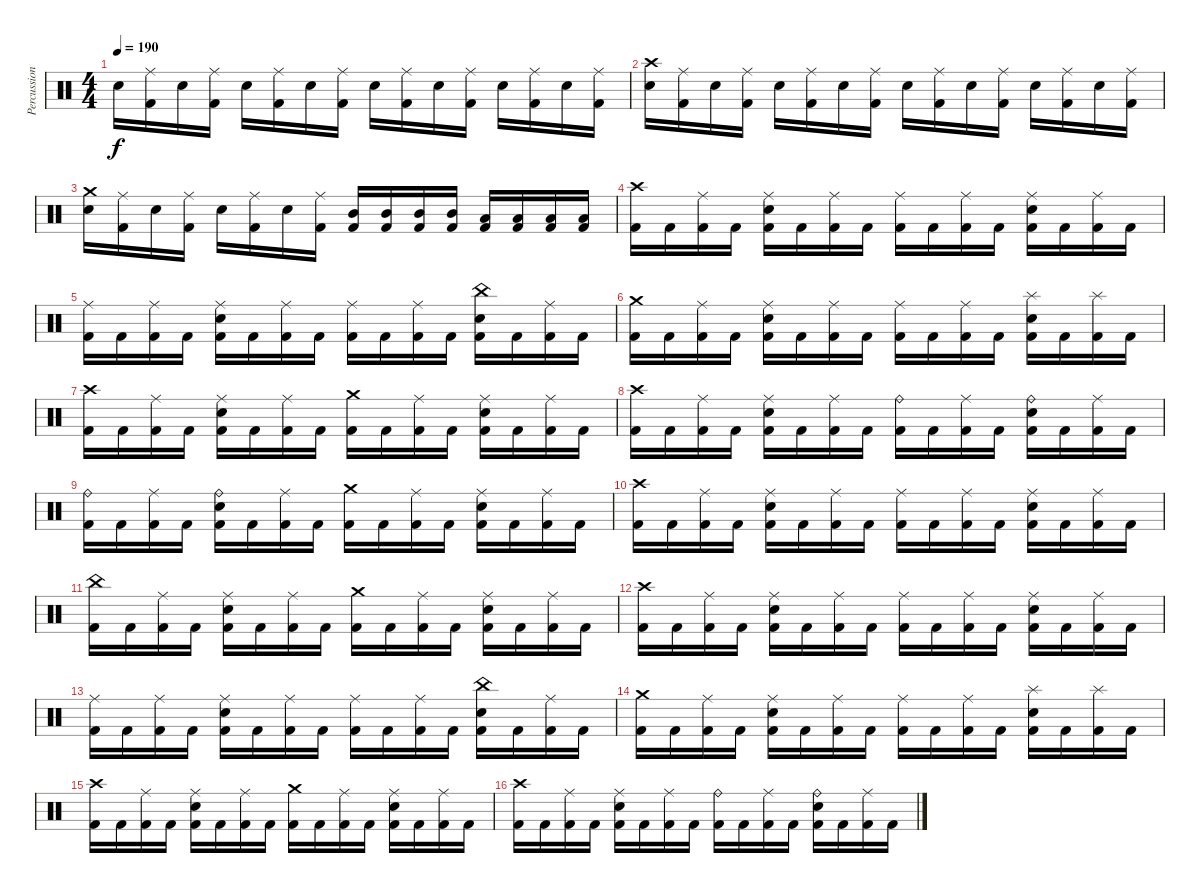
\track ("Percussion" "Percussion") {instrument percussion}
\staff {score}
\articulation defaults
\ts (4 4)
\tempo 190
\clef neutral
\ks c "Snare (hit) 2".16{dy f}
("Ride (middle)" "Kick (hit) 2").16 "Snare (hit) 2".16 ("Ride (middle)" "Kick (hit) 2").16 "Snare (hit) 2".16 ("Ride (middle)" "Kick (hit) 2").16 "Snare (hit) 2".16 ("Ride (middle)" "Kick (hit) 2").16 "Snare (hit) 2".16 ("Ride (middle)" "Kick (hit) 2").16 "Snare (hit) 2".16 ("Ride (middle)" "Kick (hit) 2").16 "Snare (hit) 2".16 ("Ride (middle)" "Kick (hit) 2").16 "Snare (hit) 2".16 ("Ride (middle)" "Kick (hit) 2").16 |
("Crash high (hit)" "Snare (hit) 2").16 ("Ride (middle)" "Kick (hit) 2").16 "Snare (hit) 2".16 ("Ride (middle)" "Kick (hit) 2").16 "Snare (hit) 2".16 ("Ride (middle)" "Kick (hit) 2").16 "Snare (hit) 2".16 ("Ride (middle)" "Kick (hit) 2").16 "Snare (hit) 2".16 ("Ride (middle)" "Kick (hit) 2").16 "Snare (hit) 2".16 ("Ride (middle)" "Kick (hit) 2").16 "Snare (hit) 2".16 ("Ride (middle)" "Kick (hit) 2").16 "Snare (hit) 2".16 ("Ride (middle)" "Kick (hit) 2").16 |
("Crash medium (hit)" "Snare (hit) 2").16 ("Ride (middle)" "Kick (hit) 2").16 "Snare (hit) 2".16 ("Ride (middle)" "Kick (hit) 2").16 "Snare (hit) 2".16 ("Ride (middle)" "Kick (hit) 2").16 "Snare (hit) 2".16 ("Ride (middle)" "Kick (hit) 2").16 ("Mid Tom (hit)" "Kick (hit) 2").16 ("Mid Tom (hit)" "Kick (hit) 2").16 ("Mid Tom (hit)" "Kick (hit) 2").16 ("Mid Tom (hit)" "Kick (hit) 2").16 ("Low Tom (hit)" "Kick (hit) 2").16 ("Low Tom (hit)" "Kick (hit) 2").16 ("Low Tom (hit)" "Kick (hit) 2").16 ("Low Tom (hit)" "Kick (hit) 2").16 |
("Crash high (hit)" "Kick (hit) 2").16 "Kick (hit) 2".16 ("Ride (middle)" "Kick (hit) 2").16 "Kick (hit) 2".16 ("Ride (middle)" "Snare (hit) 2" "Kick (hit) 2").16 "Kick (hit) 2".16 ("Ride (middle)" "Kick (hit) 2").16 "Kick (hit) 2".16 ("Ride (middle)" "Kick (hit) 2").16 "Kick (hit) 2".16 ("Ride (middle)" "Kick (hit) 2").16 "Kick (hit) 2".16 ("Ride (middle)" "Snare (hit) 2" "Kick (hit) 2").16 "Kick (hit) 2".16 ("Ride (middle)" "Kick (hit) 2").16 "Kick (hit) 2".16 |
("Ride (middle)" "Kick (hit) 2").16 "Kick (hit) 2".16 ("Ride (middle)" "Kick (hit) 2").16 "Kick (hit) 2".16 ("Ride (middle)" "Snare (hit) 2" "Kick (hit) 2").16 "Kick (hit) 2".16 ("Ride (middle)" "Kick (hit) 2").16 "Kick (hit) 2".16 ("Ride (middle)" "Kick (hit) 2").16 "Kick (hit) 2".16 ("Ride (middle)" "Kick (hit) 2").16 "Kick (hit) 2".16 ("China (hit)" "Snare (hit) 2" "Kick (hit) 2").16 "Kick (hit) 2".16 ("Ride (middle)" "Kick (hit) 2").16 "Kick (hit) 2".16 |
("Crash medium (hit)" "Kick (hit) 2").16 "Kick (hit) 2".16 ("Ride (middle)" "Kick (hit) 2").16 "Kick (hit) 2".16 ("Ride (middle)" "Snare (hit) 2" "Kick (hit) 2").16 "Kick (hit) 2".16 ("Ride (middle)" "Kick (hit) 2").16 "Kick (hit) 2".16 ("Ride (middle)" "Kick (hit) 2").16 "Kick (hit) 2".16 ("Ride (middle)" "Kick (hit) 2").16 "Kick (hit) 2".16 ("Splash (hit)" "Snare (hit) 2" "Kick (hit) 2").16 "Kick (hit) 2".16 ("Splash (hit)" "Kick (hit) 2").16 "Kick (hit) 2".16 |
("Crash high (hit)" "Kick (hit) 2").16 "Kick (hit) 2".16 ("Ride (middle)" "Kick (hit) 2").16 "Kick (hit) 2".16 ("Ride (middle)" "Snare (hit) 2" "Kick (hit) 2").16 "Kick (hit) 2".16 ("Ride (middle)" "Kick (hit) 2").16 "Kick (hit) 2".16 ("Crash medium (hit)" "Kick (hit) 2").16 "Kick (hit) 2".16 ("Ride (middle)" "Kick (hit) 2").16 "Kick (hit) 2".16 ("Ride (middle)" "Snare (hit) 2" "Kick (hit) 2").16 "Kick (hit) 2".16 ("Ride (middle)" "Kick (hit) 2").16 "Kick (hit) 2".16 |
("Crash high (hit)" "Kick (hit) 2").16 "Kick (hit) 2".16 ("Ride (middle)" "Kick (hit) 2").16 "Kick (hit) 2".16 ("Ride (middle)" "Snare (hit) 2" "Kick (hit) 2").16 "Kick (hit) 2".16 ("Ride (middle)" "Kick (hit) 2").16 "Kick (hit) 2".16 ("Ride (bell)" "Kick (hit) 2").16 "Kick (hit) 2".16 ("Ride (middle)" "Kick (hit) 2").16 "Kick (hit) 2".16 ("Ride (bell)" "Snare (hit) 2" "Kick (hit) 2").16 "Kick (hit) 2".16 ("Ride (middle)" "Kick (hit) 2").16 "Kick (hit) 2".16 |
("Ride (bell)" "Kick (hit) 2").16 "Kick (hit) 2".16 ("Ride (middle)" "Kick (hit) 2").16 "Kick (hit) 2".16 ("Ride (bell)" "Snare (hit) 2" "Kick (hit) 2").16 "Kick (hit) 2".16 ("Ride (middle)" "Kick (hit) 2").16 "Kick (hit) 2".16 ("Crash medium (hit)" "Kick (hit) 2").16 "Kick (hit) 2".16 ("Ride (middle)" "Kick (hit) 2").16 "Kick (hit) 2".16 ("Ride (middle)" "Snare (hit) 2" "Kick (hit) 2").16 "Kick (hit) 2".16 ("Ride (middle)" "Kick (hit) 2").16 "Kick (hit) 2".16 |
("Crash high (hit)" "Kick (hit) 2").16 "Kick (hit) 2".16 ("Ride (middle)" "Kick (hit) 2").16 "Kick (hit) 2".16 ("Ride (middle)" "Snare (hit) 2" "Kick (hit) 2").16 "Kick (hit) 2".16 ("Ride (middle)" "Kick (hit) 2").16 "Kick (hit) 2".16 ("Ride (middle)" "Kick (hit) 2").16 "Kick (hit) 2".16 ("Ride (middle)" "Kick (hit) 2").16 "Kick (hit) 2".16 ("Ride (middle)" "Snare (hit) 2" "Kick (hit) 2").16 "Kick (hit) 2".16 ("Ride (middle)" "Kick (hit) 2").16 "Kick (hit) 2".16 |
("China (hit)" "Kick (hit) 2").16 "Kick (hit) 2".16 ("Ride (middle)" "Kick (hit) 2").16 "Kick (hit) 2".16 ("Ride (middle)" "Snare (hit) 2" "Kick (hit) 2").16 "Kick (hit) 2".16 ("Ride (middle)" "Kick (hit) 2").16 "Kick (hit) 2".16 ("Crash medium (hit)" "Kick (hit) 2").16 "Kick (hit) 2".16 ("Ride (middle)" "Kick (hit) 2").16 "Kick (hit) 2".16 ("Ride (middle)" "Snare (hit) 2" "Kick (hit) 2").16 "Kick (hit) 2".16 ("Ride (middle)" "Kick (hit) 2").16 "Kick (hit) 2".16 |
("Crash high (hit)" "Kick (hit) 2").16 "Kick (hit) 2".16 ("Ride (middle)" "Kick (hit) 2").16 "Kick (hit) 2".16 ("Ride (middle)" "Snare (hit) 2" "Kick (hit) 2").16 "Kick (hit) 2".16 ("Ride (middle)" "Kick (hit) 2").16 "Kick (hit) 2".16 ("Ride (middle)" "Kick (hit) 2").16 "Kick (hit) 2".16 ("Ride (middle)" "Kick (hit) 2").16 "Kick (hit) 2".16 ("Ride (middle)" "Snare (hit) 2" "Kick (hit) 2").16 "Kick (hit) 2".16 ("Ride (middle)" "Kick (hit) 2").16 "Kick (hit) 2".16 |
("Ride (middle)" "Kick (hit) 2").16 "Kick (hit) 2".16 ("Ride (middle)" "Kick (hit) 2").16 "Kick (hit) 2".16 ("Ride (middle)" "Snare (hit) 2" "Kick (hit) 2").16 "Kick (hit) 2".16 ("Ride (middle)" "Kick (hit) 2").16 "Kick (hit) 2".16 ("Ride (middle)" "Kick (hit) 2").16 "Kick (hit) 2".16 ("Ride (middle)" "Kick (hit) 2").16 "Kick (hit) 2".16 ("China (hit)" "Snare (hit) 2" "Kick (hit) 2").16 "Kick (hit) 2".16 ("Ride (middle)" "Kick (hit) 2").16 "Kick (hit) 2".16 |
("Crash medium (hit)" "Kick (hit) 2").16 "Kick (hit) 2".16 ("Ride (middle)" "Kick (hit) 2").16 "Kick (hit) 2".16 ("Ride (middle)" "Snare (hit) 2" "Kick (hit) 2").16 "Kick (hit) 2".16 ("Ride (middle)" "Kick (hit) 2").16 "Kick (hit) 2".16 ("Ride (middle)" "Kick (hit) 2").16 "Kick (hit) 2".16 ("Ride (middle)" "Kick (hit) 2").16 "Kick (hit) 2".16 ("Splash (hit)" "Snare (hit) 2" "Kick (hit) 2").16 "Kick (hit) 2".16 ("Splash (hit)" "Kick (hit) 2").16 "Kick (hit) 2".16 |
("Crash high (hit)" "Kick (hit) 2").16 "Kick (hit) 2".16 ("Ride (middle)" "Kick (hit) 2").16 "Kick (hit) 2".16 ("Ride (middle)" "Snare (hit) 2" "Kick (hit) 2").16 "Kick (hit) 2".16 ("Ride (middle)" "Kick (hit) 2").16 "Kick (hit) 2".16 ("Crash medium (hit)" "Kick (hit) 2").16 "Kick (hit) 2".16 ("Ride (middle)" "Kick (hit) 2").16 "Kick (hit) 2".16 ("Ride (middle)" "Snare (hit) 2" "Kick (hit) 2").16 "Kick (hit) 2".16 ("Ride (middle)" "Kick (hit) 2").16 "Kick (hit) 2".16 |
("Crash high (hit)" "Kick (hit) 2").16 "Kick (hit) 2".16 ("Ride (middle)" "Kick (hit) 2").16 "Kick (hit) 2".16 ("Ride (middle)" "Snare (hit) 2" "Kick (hit) 2").16 "Kick (hit) 2".16 ("Ride (middle)" "Kick (hit) 2").16 "Kick (hit) 2".16 ("Ride (bell)" "Kick (hit) 2").16 "Kick (hit) 2".16 ("Ride (middle)" "Kick (hit) 2").16 "Kick (hit) 2".16 ("Ride (bell)" "Snare (hit) 2" "Kick (hit) 2").16 "Kick (hit) 2".16 ("Ride (middle)" "Kick (hit) 2").16 "Kick (hit) 2".16
